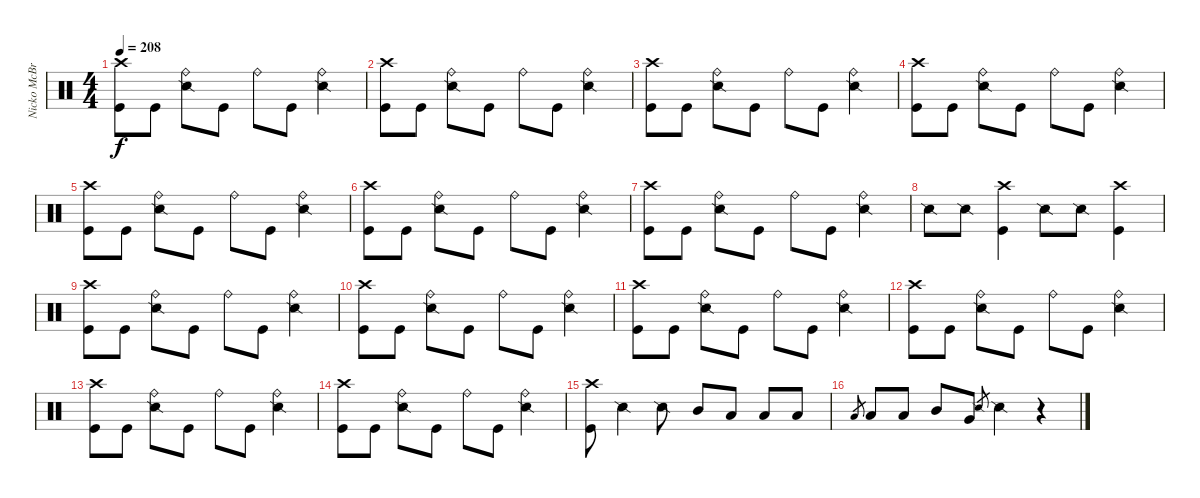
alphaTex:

\track ("Nicko McBrain" "Nicko McBr") {instrument percussion}
\staff {score}
\articulation defaults
\ts (4 4)
\tempo 208
\clef neutral
\ks c
("Crash high (hit)" "Kick (hit)").8{dy f} "Kick (hit)".8 ("Ride (bell)" "Snare (side stick) 2").8 "Kick (hit)".8 "Ride (bell)".8 "Kick (hit)".8 ("Ride (bell)" "Snare (side stick) 2").4 |
("Crash high (hit)" "Kick (hit)").8 "Kick (hit)".8 ("Ride (bell)" "Snare (side stick) 2").8 "Kick (hit)".8 "Ride (bell)".8 "Kick (hit)".8 ("Ride (bell)" "Snare (side stick) 2").4 |
("Crash high (hit)" "Kick (hit)").8 "Kick (hit)".8 ("Ride (bell)" "Snare (side stick) 2").8 "Kick (hit)".8 "Ride (bell)".8 "Kick (hit)".8 ("Ride (bell)" "Snare (side stick) 2").4 |
("Crash high (hit)" "Kick (hit)").8 "Kick (hit)".8 ("Ride (bell)" "Snare (side stick) 2").8 "Kick (hit)".8 "Ride (bell)".8 "Kick (hit)".8 ("Ride (bell)" "Snare (side stick) 2").4 |
("Crash high (hit)" "Kick (hit)").8 "Kick (hit)".8 ("Ride (bell)" "Snare (side stick) 2").8 "Kick (hit)".8 "Ride (bell)".8 "Kick (hit)".8 ("Ride (bell)" "Snare (side stick) 2").4 |
("Crash high (hit)" "Kick (hit)").8 "Kick (hit)".8 ("Ride (bell)" "Snare (side stick) 2").8 "Kick (hit)".8 "Ride (bell)".8 "Kick (hit)".8 ("Ride (bell)" "Snare (side stick) 2").4 |
("Crash high (hit)" "Kick (hit)").8 "Kick (hit)".8 ("Ride (bell)" "Snare (side stick) 2").8 "Kick (hit)".8 "Ride (bell)".8 "Kick (hit)".8 ("Ride (bell)" "Snare (side stick) 2").4 |
"Snare (side stick) 2".8 "Snare (side stick) 2".8 ("Crash high (hit)" "Kick (hit)").4 "Snare (side stick) 2".8 "Snare (side stick) 2".8 ("Crash high (hit)" "Kick (hit)").4 |
("Crash high (hit)" "Kick (hit)").8 "Kick (hit)".8 ("Ride (bell)" "Snare (side stick) 2").8 "Kick (hit)".8 "Ride (bell)".8 "Kick (hit)".8 ("Ride (bell)" "Snare (side stick) 2").4 |
("Crash high (hit)" "Kick (hit)").8 "Kick (hit)".8 ("Ride (bell)" "Snare (side stick) 2").8 "Kick (hit)".8 "Ride (bell)".8 "Kick (hit)".8 ("Ride (bell)" "Snare (side stick) 2").4 |
("Crash high (hit)" "Kick (hit)").8 "Kick (hit)".8 ("Ride (bell)" "Snare (side stick) 2").8 "Kick (hit)".8 "Ride (bell)".8 "Kick (hit)".8 ("Ride (bell)" "Snare (side stick) 2").4 |
("Crash high (hit)" "Kick (hit)").8 "Kick (hit)".8 ("Ride (bell)" "Snare (side stick) 2").8 "Kick (hit)".8 "Ride (bell)".8 "Kick (hit)".8 ("Ride (bell)" "Snare (side stick) 2").4 |
("Crash high (hit)" "Kick (hit)").8 "Kick (hit)".8 ("Ride (bell)" "Snare (side stick) 2").8 "Kick (hit)".8 "Ride (bell)".8 "Kick (hit)".8 ("Ride (bell)" "Snare (side stick) 2").4 |
("Crash high (hit)" "Kick (hit)").8 "Kick (hit)".8 ("Ride (bell)" "Snare (side stick) 2").8 "Kick (hit)".8 "Ride (bell)".8 "Kick (hit)".8 ("Ride (bell)" "Snare (side stick) 2").4 |
("Crash high (hit)" "Kick (hit)").8 "Snare (side stick) 2".4 "Snare (side stick) 2".8 "Mid Tom (hit)".8 "Low Tom (hit)".8 "Low Tom (hit)".8 "Low Tom (hit)".8 |
"Low Tom (hit)".8{gr} "Low Tom (hit)".8 "Low Tom (hit)".8 "Mid Tom (hit)".8 "Very Low Tom (hit)".8 "Snare (side stick) 2".8{gr} "Snare (side stick) 2".4 r.4
